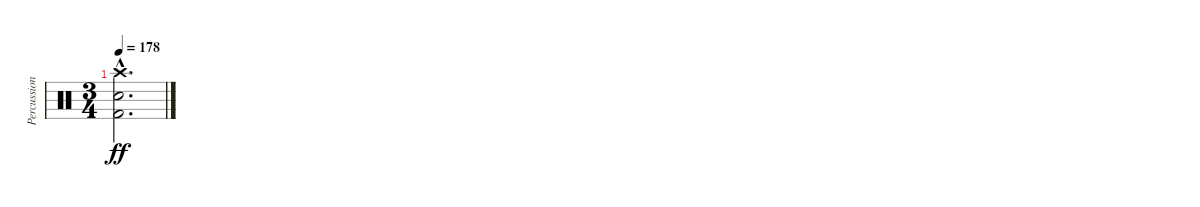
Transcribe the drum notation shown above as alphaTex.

\track ("Percussion" "Percussion") {instrument percussion}
\staff {score}
\articulation defaults
\ts (3 4)
\tempo 178
\clef neutral
\ks c
("Crash high (hit)"{hac} "Electric Snare (hit)"{hac} "Kick (hit) 2"{hac}).2{d dy ff}
